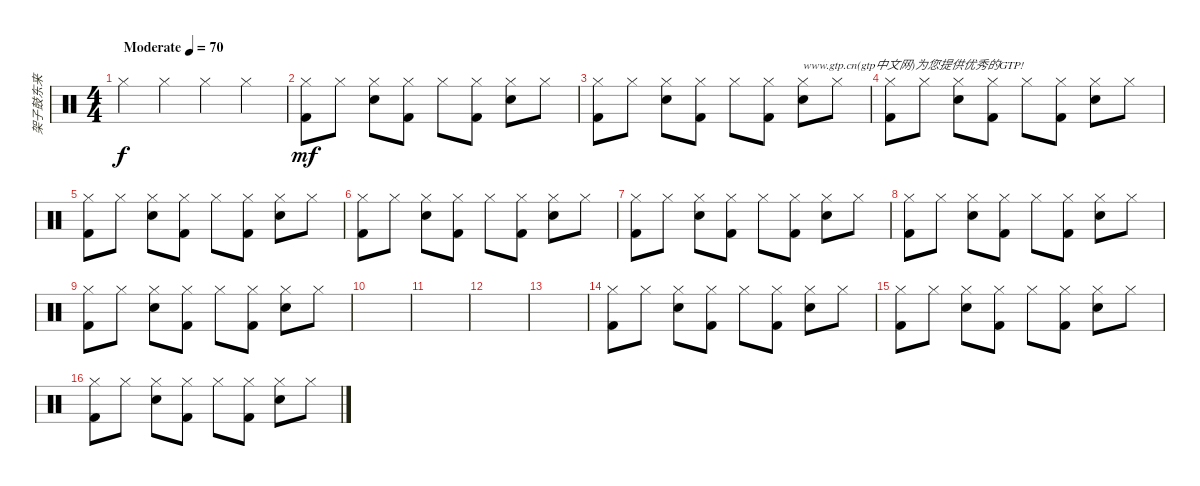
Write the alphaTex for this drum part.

\track ("架子鼓东来" "架子鼓东来") {instrument percussion}
\staff {score}
\articulation defaults
\ts (4 4)
\tempo (70 "Moderate")
\clef neutral
\ks c "Hi-Hat (closed)".4{dy f} "Hi-Hat (closed)".4 "Hi-Hat (closed)".4 "Hi-Hat (closed)".4
|
("Hi-Hat (closed)" "Kick (hit) 2").8{dy mf} "Hi-Hat (closed)".8 ("Hi-Hat (closed)" "Snare (hit) 2").8 ("Hi-Hat (closed)" "Kick (hit) 2").8 "Hi-Hat (closed)".8 ("Hi-Hat (closed)" "Kick (hit) 2").8 ("Hi-Hat (closed)" "Snare (hit) 2").8 "Hi-Hat (closed)".8 |
("Hi-Hat (closed)" "Kick (hit) 2").8 "Hi-Hat (closed)".8 ("Hi-Hat (closed)" "Snare (hit) 2").8 ("Hi-Hat (closed)" "Kick (hit) 2").8 "Hi-Hat (closed)".8 ("Hi-Hat (closed)" "Kick (hit) 2").8 ("Hi-Hat (closed)" "Snare (hit) 2").8{txt "www.gtp.cn(gtp中文网)为您提供优秀的GTP!"} "Hi-Hat (closed)".8 |
("Hi-Hat (closed)" "Kick (hit) 2").8 "Hi-Hat (closed)".8 ("Hi-Hat (closed)" "Snare (hit) 2").8 ("Hi-Hat (closed)" "Kick (hit) 2").8 "Hi-Hat (closed)".8 ("Hi-Hat (closed)" "Kick (hit) 2").8 ("Hi-Hat (closed)" "Snare (hit) 2").8 "Hi-Hat (closed)".8 |
("Hi-Hat (closed)" "Kick (hit) 2").8 "Hi-Hat (closed)".8 ("Hi-Hat (closed)" "Snare (hit) 2").8 ("Hi-Hat (closed)" "Kick (hit) 2").8 "Hi-Hat (closed)".8 ("Hi-Hat (closed)" "Kick (hit) 2").8 ("Hi-Hat (closed)" "Snare (hit) 2").8 "Hi-Hat (closed)".8 |
("Hi-Hat (closed)" "Kick (hit) 2").8 "Hi-Hat (closed)".8 ("Hi-Hat (closed)" "Snare (hit) 2").8 ("Hi-Hat (closed)" "Kick (hit) 2").8 "Hi-Hat (closed)".8 ("Hi-Hat (closed)" "Kick (hit) 2").8 ("Hi-Hat (closed)" "Snare (hit) 2").8 "Hi-Hat (closed)".8 |
("Hi-Hat (closed)" "Kick (hit) 2").8 "Hi-Hat (closed)".8 ("Hi-Hat (closed)" "Snare (hit) 2").8 ("Hi-Hat (closed)" "Kick (hit) 2").8 "Hi-Hat (closed)".8 ("Hi-Hat (closed)" "Kick (hit) 2").8 ("Hi-Hat (closed)" "Snare (hit) 2").8 "Hi-Hat (closed)".8 |
("Hi-Hat (closed)" "Kick (hit) 2").8 "Hi-Hat (closed)".8 ("Hi-Hat (closed)" "Snare (hit) 2").8 ("Hi-Hat (closed)" "Kick (hit) 2").8 "Hi-Hat (closed)".8 ("Hi-Hat (closed)" "Kick (hit) 2").8 ("Hi-Hat (closed)" "Snare (hit) 2").8 "Hi-Hat (closed)".8 |
("Hi-Hat (closed)" "Kick (hit) 2").8 "Hi-Hat (closed)".8 ("Hi-Hat (closed)" "Snare (hit) 2").8 ("Hi-Hat (closed)" "Kick (hit) 2").8 "Hi-Hat (closed)".8 ("Hi-Hat (closed)" "Kick (hit) 2").8 ("Hi-Hat (closed)" "Snare (hit) 2").8 "Hi-Hat (closed)".8 |
|
|
|
|
("Hi-Hat (closed)" "Kick (hit) 2").8 "Hi-Hat (closed)".8 ("Hi-Hat (closed)" "Snare (hit) 2").8 ("Hi-Hat (closed)" "Kick (hit) 2").8 "Hi-Hat (closed)".8 ("Hi-Hat (closed)" "Kick (hit) 2").8 ("Hi-Hat (closed)" "Snare (hit) 2").8 "Hi-Hat (closed)".8 |
("Hi-Hat (closed)" "Kick (hit) 2").8 "Hi-Hat (closed)".8 ("Hi-Hat (closed)" "Snare (hit) 2").8 ("Hi-Hat (closed)" "Kick (hit) 2").8 "Hi-Hat (closed)".8 ("Hi-Hat (closed)" "Kick (hit) 2").8 ("Hi-Hat (closed)" "Snare (hit) 2").8 "Hi-Hat (closed)".8 |
("Hi-Hat (closed)" "Kick (hit) 2").8 "Hi-Hat (closed)".8 ("Hi-Hat (closed)" "Snare (hit) 2").8 ("Hi-Hat (closed)" "Kick (hit) 2").8 "Hi-Hat (closed)".8 ("Hi-Hat (closed)" "Kick (hit) 2").8 ("Hi-Hat (closed)" "Snare (hit) 2").8 "Hi-Hat (closed)".8
